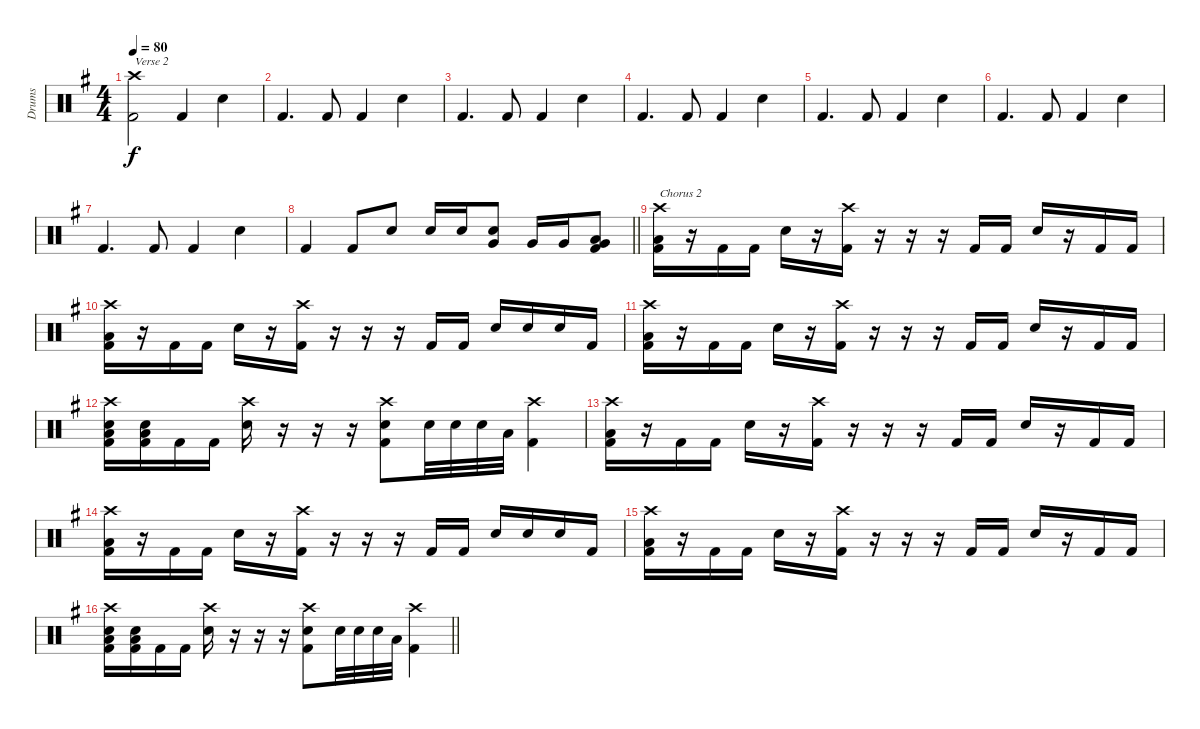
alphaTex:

\track ("Drums" "Drums") {instrument percussion}
\staff {score}
\articulation defaults
\ts (4 4)
\tempo 80
\clef neutral
\ks g
("Crash high (hit)" "Kick (hit) 2").2{txt "Verse 2" dy f} "Kick (hit) 2".4 "Snare (hit) 2".4 |
"Kick (hit) 2".4{d} "Kick (hit) 2".8 "Kick (hit) 2".4 "Snare (hit) 2".4 |
"Kick (hit) 2".4{d} "Kick (hit) 2".8 "Kick (hit) 2".4 "Snare (hit) 2".4 |
"Kick (hit) 2".4{d} "Kick (hit) 2".8 "Kick (hit) 2".4 "Snare (hit) 2".4 |
"Kick (hit) 2".4{d} "Kick (hit) 2".8 "Kick (hit) 2".4 "Snare (hit) 2".4 |
"Kick (hit) 2".4{d} "Kick (hit) 2".8 "Kick (hit) 2".4 "Snare (hit) 2".4 |
"Kick (hit) 2".4{d} "Kick (hit) 2".8 "Kick (hit) 2".4 "Snare (hit) 2".4 |
\barLineRight lightlight "Kick (hit) 2".4 "Kick (hit) 2".8 "Snare (hit) 2".8 "Snare (hit) 2".16 "Snare (hit) 2".16
("Snare (hit) 2" "Very Low Tom (hit)").8 "Very Low Tom (hit)".16 "Very Low Tom (hit)".16 ("Very Low Tom (hit)" "Low Floor Tom (hit)" "Kick (hit) 2").8 |
("Crash high (hit)" "Low Floor Tom (hit)" "Kick (hit) 2").16{txt "Chorus 2"} r.16 "Kick (hit) 2".16 "Kick (hit) 2".16 "Snare (hit) 2".16 r.16 ("Crash high (hit)" "Kick (hit) 2").16 r.16 r.16 r.16 "Kick (hit) 2".16 "Kick (hit) 2".16 "Snare (hit) 2".16 r.16 "Kick (hit) 2".16 "Kick (hit) 2".16 |
("Crash high (hit)" "Low Floor Tom (hit)" "Kick (hit) 2").16 r.16 "Kick (hit) 2".16 "Kick (hit) 2".16 "Snare (hit) 2".16 r.16 ("Crash high (hit)" "Kick (hit) 2").16 r.16 r.16 r.16 "Kick (hit) 2".16 "Kick (hit) 2".16 "Snare (hit) 2".16 "Snare (hit) 2".16 "Snare (hit) 2".16 "Kick (hit) 2".16 |
("Crash high (hit)" "Low Floor Tom (hit)" "Kick (hit) 2").16 r.16 "Kick (hit) 2".16 "Kick (hit) 2".16 "Snare (hit) 2".16 r.16 ("Crash high (hit)" "Kick (hit) 2").16 r.16 r.16 r.16 "Kick (hit) 2".16 "Kick (hit) 2".16 "Snare (hit) 2".16 r.16 "Kick (hit) 2".16 "Kick (hit) 2".16 |
("Crash high (hit)" "Snare (hit) 2" "Low Floor Tom (hit)" "Kick (hit) 2").16 ("Snare (hit) 2" "Low Floor Tom (hit)" "Kick (hit) 2").16 "Kick (hit) 2".16 "Kick (hit) 2".16 ("Crash high (hit)" "Snare (hit) 2").16 r.16 r.16 r.16 ("Crash high (hit)" "Snare (hit) 2" "Kick (hit) 2").8 "Snare (hit) 2".32 "Snare (hit) 2".32 "Snare (hit) 2".32 "Low Floor Tom (hit)".32 ("Crash high (hit)" "Kick (hit) 2").4 |
("Crash high (hit)" "Low Floor Tom (hit)" "Kick (hit) 2").16 r.16 "Kick (hit) 2".16 "Kick (hit) 2".16 "Snare (hit) 2".16 r.16 ("Crash high (hit)" "Kick (hit) 2").16 r.16 r.16 r.16 "Kick (hit) 2".16 "Kick (hit) 2".16 "Snare (hit) 2".16 r.16 "Kick (hit) 2".16 "Kick (hit) 2".16 |
("Crash high (hit)" "Low Floor Tom (hit)" "Kick (hit) 2").16 r.16 "Kick (hit) 2".16 "Kick (hit) 2".16 "Snare (hit) 2".16 r.16 ("Crash high (hit)" "Kick (hit) 2").16 r.16 r.16 r.16 "Kick (hit) 2".16 "Kick (hit) 2".16 "Snare (hit) 2".16 "Snare (hit) 2".16 "Snare (hit) 2".16 "Kick (hit) 2".16 |
("Crash high (hit)" "Low Floor Tom (hit)" "Kick (hit) 2").16 r.16 "Kick (hit) 2".16 "Kick (hit) 2".16 "Snare (hit) 2".16 r.16 ("Crash high (hit)" "Kick (hit) 2").16 r.16 r.16 r.16 "Kick (hit) 2".16 "Kick (hit) 2".16 "Snare (hit) 2".16 r.16 "Kick (hit) 2".16 "Kick (hit) 2".16 |
\barLineRight lightlight
("Crash high (hit)" "Snare (hit) 2" "Low Floor Tom (hit)" "Kick (hit) 2").16 ("Snare (hit) 2" "Low Floor Tom (hit)" "Kick (hit) 2").16 "Kick (hit) 2".16 "Kick (hit) 2".16 ("Crash high (hit)" "Snare (hit) 2").16 r.16 r.16 r.16 ("Crash high (hit)" "Snare (hit) 2" "Kick (hit) 2").8 "Snare (hit) 2".32 "Snare (hit) 2".32 "Snare (hit) 2".32 "Low Floor Tom (hit)".32 ("Crash high (hit)" "Kick (hit) 2").4
